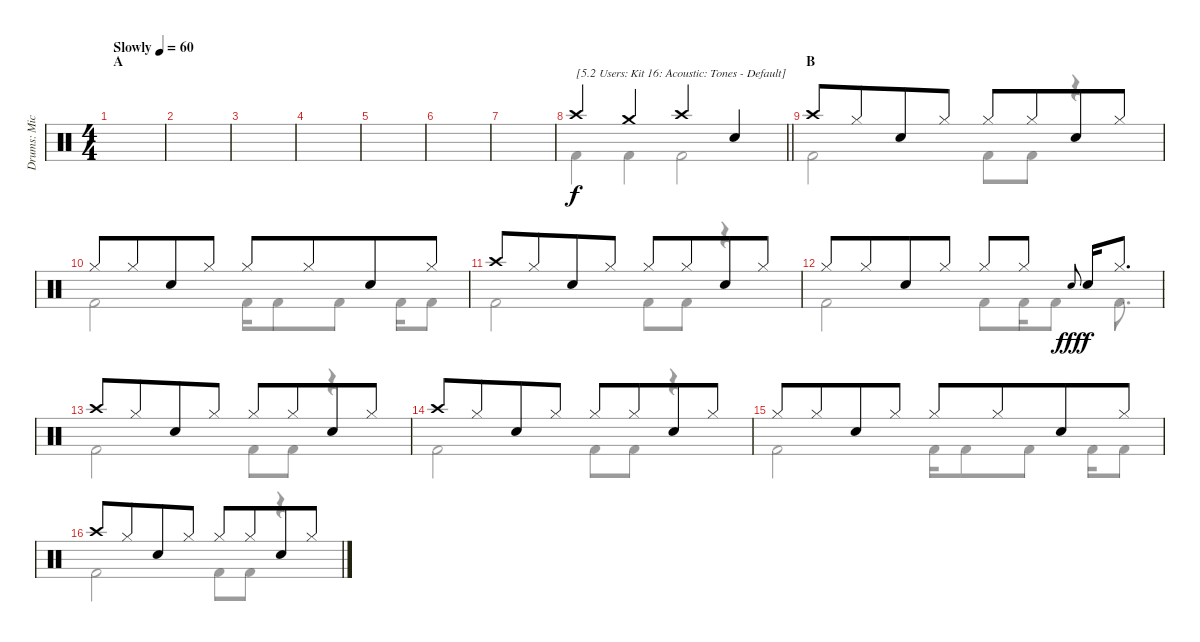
\track ("Drums: Mick" "Drums: Mic") {instrument percussion}
\staff {score}
\articulation defaults
\voice
\ts (4 4)
\section ("" "A")
\tempo (60 "Slowly")
\clef neutral
\ks c
|
|
|
|
|
|
|
\barLineRight lightlight "Crash high (hit)".4{txt "[5.2 Users: Kit 16: Acoustic: Tones - Default]"} "Crash medium (hit)".4 "Crash high (hit)".4 "Snare (hit) 2".4
|
\section ("" "B")
"Crash high (hit)".8 "Hi-Hat (closed)".8{beam merge} "Snare (hit) 2".8 "Hi-Hat (closed)".8 "Hi-Hat (closed)".8 "Hi-Hat (closed)".8{beam merge} "Snare (hit) 2".8 "Hi-Hat (closed)".8 |
"Hi-Hat (closed)".8 "Hi-Hat (closed)".8{beam merge} "Snare (hit) 2".8 "Hi-Hat (closed)".8 "Hi-Hat (closed)".8 "Hi-Hat (closed)".8{beam merge} "Snare (hit) 2".8 "Hi-Hat (closed)".8 |
"Crash high (hit)".8 "Hi-Hat (closed)".8{beam merge} "Snare (hit) 2".8 "Hi-Hat (closed)".8 "Hi-Hat (closed)".8 "Hi-Hat (closed)".8{beam merge} "Snare (hit) 2".8 "Hi-Hat (closed)".8 |
"Hi-Hat (closed)".8 "Hi-Hat (closed)".8{beam merge} "Snare (hit) 2".8 "Hi-Hat (closed)".8 "Hi-Hat (closed)".8 "Hi-Hat (closed)".8 "Electric Snare (hit)".8{gr onbeat dy fff beam merge} "Snare (hit) 2".16{dy f} "Hi-Hat (closed)".8{d} |
"Crash high (hit)".8 "Hi-Hat (closed)".8{beam merge} "Snare (hit) 2".8 "Hi-Hat (closed)".8 "Hi-Hat (closed)".8 "Hi-Hat (closed)".8{beam merge} "Snare (hit) 2".8 "Hi-Hat (closed)".8 |
"Crash high (hit)".8 "Hi-Hat (closed)".8{beam merge} "Snare (hit) 2".8 "Hi-Hat (closed)".8 "Hi-Hat (closed)".8 "Hi-Hat (closed)".8{beam merge} "Snare (hit) 2".8 "Hi-Hat (closed)".8 |
"Hi-Hat (closed)".8 "Hi-Hat (closed)".8{beam merge} "Snare (hit) 2".8 "Hi-Hat (closed)".8 "Hi-Hat (closed)".8 "Hi-Hat (closed)".8{beam merge} "Snare (hit) 2".8 "Hi-Hat (closed)".8 |
"Crash high (hit)".8 "Hi-Hat (closed)".8{beam merge} "Snare (hit) 2".8 "Hi-Hat (closed)".8 "Hi-Hat (closed)".8 "Hi-Hat (closed)".8{beam merge} "Snare (hit) 2".8 "Hi-Hat (closed)".8
\voice
\clef neutral
\ottava regular
\simile none
\ks c
|
|
|
|
|
|
|
\barLineRight lightlight "Kick (hit) 2".4 "Kick (hit) 2".4 "Kick (hit) 2".2
|
"Kick (hit) 2".2 "Kick (hit) 2".8 "Kick (hit) 2".8 r.4 |
"Kick (hit) 2".2 "Kick (hit) 2".16 "Kick (hit) 2".8 "Kick (hit) 2".8 "Kick (hit) 2".16 "Kick (hit) 2".8 |
"Kick (hit) 2".2 "Kick (hit) 2".8 "Kick (hit) 2".8 r.4 |
"Kick (hit) 2".2 "Kick (hit) 2".8 "Kick (hit) 2".16 "Kick (hit) 2".8 "Kick (hit) 2".8{d} |
"Kick (hit) 2".2 "Kick (hit) 2".8 "Kick (hit) 2".8 r.4 |
"Kick (hit) 2".2 "Kick (hit) 2".8 "Kick (hit) 2".8 r.4 |
"Kick (hit) 2".2 "Kick (hit) 2".16 "Kick (hit) 2".8 "Kick (hit) 2".8 "Kick (hit) 2".16 "Kick (hit) 2".8 |
"Kick (hit) 2".2 "Kick (hit) 2".8 "Kick (hit) 2".8 r.4
